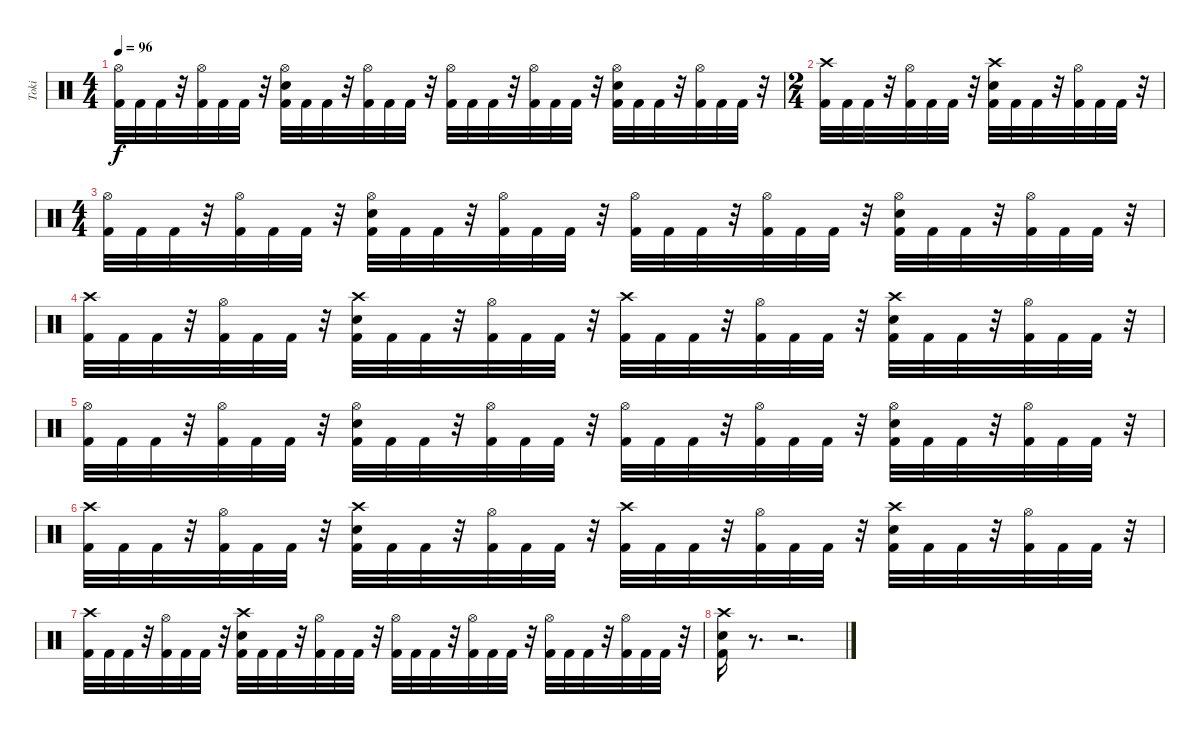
\track ("Toki" "Toki") {instrument percussion}
\staff {score}
\articulation defaults
\ts (4 4)
\tempo 96
\clef neutral
\ks c
("Hi-Hat (open)" "Kick (hit) 2").32{dy f} "Kick (hit) 2".32 "Kick (hit) 2".32 r.32 ("Hi-Hat (open)" "Kick (hit) 2").32 "Kick (hit) 2".32 "Kick (hit) 2".32 r.32 ("Hi-Hat (open)" "Electric Snare (hit)" "Kick (hit) 2").32 "Kick (hit) 2".32 "Kick (hit) 2".32 r.32 ("Hi-Hat (open)" "Kick (hit) 2").32 "Kick (hit) 2".32 "Kick (hit) 2".32 r.32 ("Hi-Hat (open)" "Kick (hit) 2").32 "Kick (hit) 2".32 "Kick (hit) 2".32 r.32 ("Hi-Hat (open)" "Kick (hit) 2").32 "Kick (hit) 2".32 "Kick (hit) 2".32 r.32 ("Hi-Hat (open)" "Electric Snare (hit)" "Kick (hit) 2").32 "Kick (hit) 2".32 "Kick (hit) 2".32 r.32 ("Hi-Hat (open)" "Kick (hit) 2").32 "Kick (hit) 2".32 "Kick (hit) 2".32 r.32 |
\ts (2 4)
("Crash high (hit)" "Kick (hit) 2").32 "Kick (hit) 2".32 "Kick (hit) 2".32 r.32 ("Hi-Hat (open)" "Kick (hit) 2").32 "Kick (hit) 2".32 "Kick (hit) 2".32 r.32 ("Crash high (hit)" "Electric Snare (hit)" "Kick (hit) 2").32 "Kick (hit) 2".32 "Kick (hit) 2".32 r.32 ("Hi-Hat (open)" "Kick (hit) 2").32 "Kick (hit) 2".32 "Kick (hit) 2".32 r.32 |
\ts (4 4)
("Hi-Hat (open)" "Kick (hit) 2").32 "Kick (hit) 2".32 "Kick (hit) 2".32 r.32 ("Hi-Hat (open)" "Kick (hit) 2").32 "Kick (hit) 2".32 "Kick (hit) 2".32 r.32 ("Hi-Hat (open)" "Electric Snare (hit)" "Kick (hit) 2").32 "Kick (hit) 2".32 "Kick (hit) 2".32 r.32 ("Hi-Hat (open)" "Kick (hit) 2").32 "Kick (hit) 2".32 "Kick (hit) 2".32 r.32 ("Hi-Hat (open)" "Kick (hit) 2").32 "Kick (hit) 2".32 "Kick (hit) 2".32 r.32 ("Hi-Hat (open)" "Kick (hit) 2").32 "Kick (hit) 2".32 "Kick (hit) 2".32 r.32 ("Hi-Hat (open)" "Electric Snare (hit)" "Kick (hit) 2").32 "Kick (hit) 2".32 "Kick (hit) 2".32 r.32 ("Hi-Hat (open)" "Kick (hit) 2").32 "Kick (hit) 2".32 "Kick (hit) 2".32 r.32 |
("Crash high (hit)" "Kick (hit) 2").32 "Kick (hit) 2".32 "Kick (hit) 2".32 r.32 ("Hi-Hat (open)" "Kick (hit) 2").32 "Kick (hit) 2".32 "Kick (hit) 2".32 r.32 ("Crash high (hit)" "Electric Snare (hit)" "Kick (hit) 2").32 "Kick (hit) 2".32 "Kick (hit) 2".32 r.32 ("Hi-Hat (open)" "Kick (hit) 2").32 "Kick (hit) 2".32 "Kick (hit) 2".32 r.32 ("Crash high (hit)" "Kick (hit) 2").32 "Kick (hit) 2".32 "Kick (hit) 2".32 r.32 ("Hi-Hat (open)" "Kick (hit) 2").32 "Kick (hit) 2".32 "Kick (hit) 2".32 r.32 ("Crash high (hit)" "Electric Snare (hit)" "Kick (hit) 2").32 "Kick (hit) 2".32 "Kick (hit) 2".32 r.32 ("Hi-Hat (open)" "Kick (hit) 2").32 "Kick (hit) 2".32 "Kick (hit) 2".32 r.32 |
("Hi-Hat (open)" "Kick (hit) 2").32 "Kick (hit) 2".32 "Kick (hit) 2".32 r.32 ("Hi-Hat (open)" "Kick (hit) 2").32 "Kick (hit) 2".32 "Kick (hit) 2".32 r.32 ("Hi-Hat (open)" "Electric Snare (hit)" "Kick (hit) 2").32 "Kick (hit) 2".32 "Kick (hit) 2".32 r.32 ("Hi-Hat (open)" "Kick (hit) 2").32 "Kick (hit) 2".32 "Kick (hit) 2".32 r.32 ("Hi-Hat (open)" "Kick (hit) 2").32 "Kick (hit) 2".32 "Kick (hit) 2".32 r.32 ("Hi-Hat (open)" "Kick (hit) 2").32 "Kick (hit) 2".32 "Kick (hit) 2".32 r.32 ("Hi-Hat (open)" "Electric Snare (hit)" "Kick (hit) 2").32 "Kick (hit) 2".32 "Kick (hit) 2".32 r.32 ("Hi-Hat (open)" "Kick (hit) 2").32 "Kick (hit) 2".32 "Kick (hit) 2".32 r.32 |
("Crash high (hit)" "Kick (hit) 2").32 "Kick (hit) 2".32 "Kick (hit) 2".32 r.32 ("Hi-Hat (open)" "Kick (hit) 2").32 "Kick (hit) 2".32 "Kick (hit) 2".32 r.32 ("Crash high (hit)" "Electric Snare (hit)" "Kick (hit) 2").32 "Kick (hit) 2".32 "Kick (hit) 2".32 r.32 ("Hi-Hat (open)" "Kick (hit) 2").32 "Kick (hit) 2".32 "Kick (hit) 2".32 r.32 ("Crash high (hit)" "Kick (hit) 2").32 "Kick (hit) 2".32 "Kick (hit) 2".32 r.32 ("Hi-Hat (open)" "Kick (hit) 2").32 "Kick (hit) 2".32 "Kick (hit) 2".32 r.32 ("Crash high (hit)" "Electric Snare (hit)" "Kick (hit) 2").32 "Kick (hit) 2".32 "Kick (hit) 2".32 r.32 ("Hi-Hat (open)" "Kick (hit) 2").32 "Kick (hit) 2".32 "Kick (hit) 2".32 r.32 |
("Crash high (hit)" "Kick (hit) 2").32 "Kick (hit) 2".32 "Kick (hit) 2".32 r.32 ("Hi-Hat (open)" "Kick (hit) 2").32 "Kick (hit) 2".32 "Kick (hit) 2".32 r.32 ("Crash high (hit)" "Electric Snare (hit)" "Kick (hit) 2").32 "Kick (hit) 2".32 "Kick (hit) 2".32 r.32 ("Hi-Hat (open)" "Kick (hit) 2").32 "Kick (hit) 2".32 "Kick (hit) 2".32 r.32 ("Hi-Hat (open)" "Kick (hit) 2").32 "Kick (hit) 2".32 "Kick (hit) 2".32 r.32 ("Hi-Hat (open)" "Kick (hit) 2").32 "Kick (hit) 2".32 "Kick (hit) 2".32 r.32 ("Hi-Hat (open)" "Kick (hit) 2").32 "Kick (hit) 2".32 "Kick (hit) 2".32 r.32 ("Hi-Hat (open)" "Kick (hit) 2").32 "Kick (hit) 2".32 "Kick (hit) 2".32 r.32 |
("Crash high (hit)" "Electric Snare (hit)" "Kick (hit) 2").16 r.8{d} r.2{d}
